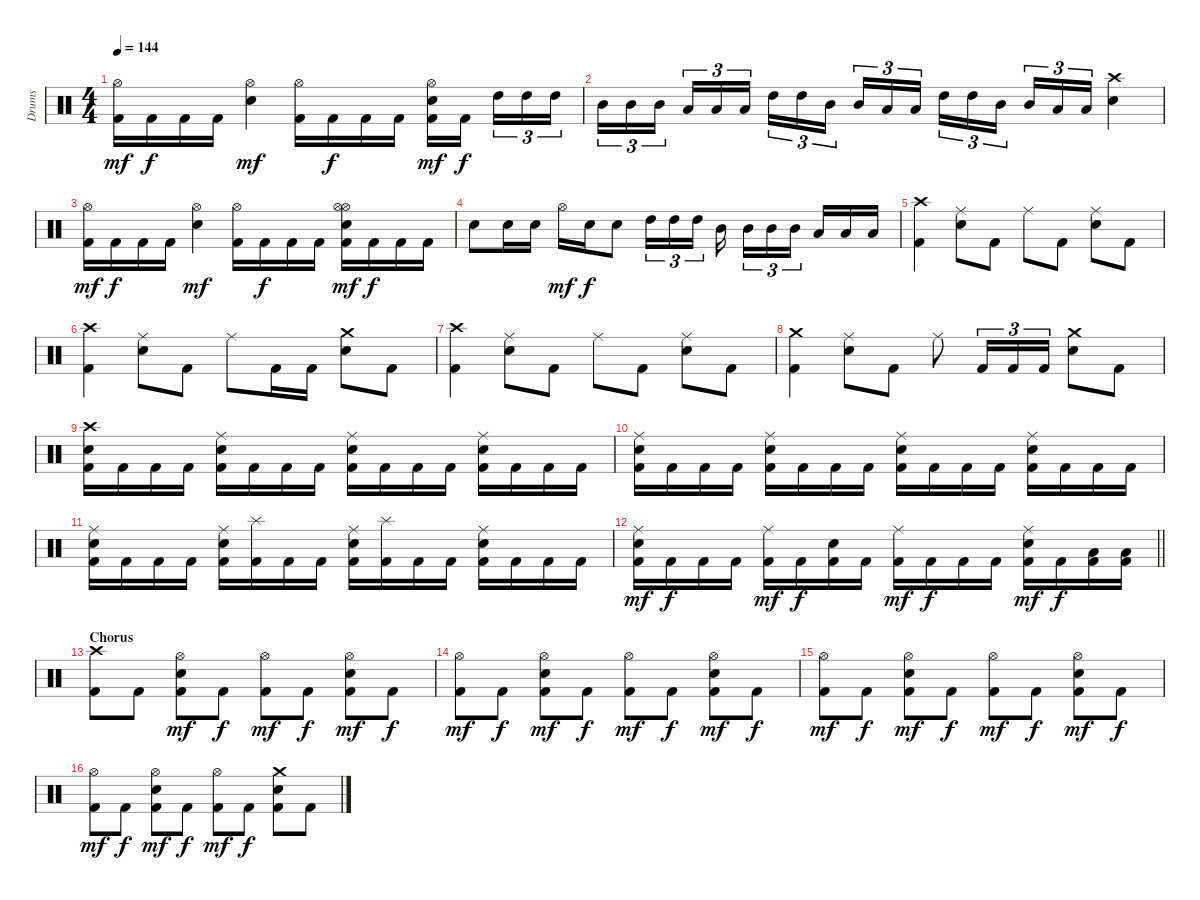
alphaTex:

\track ("Drums" "Drums") {instrument percussion}
\staff {score}
\articulation defaults
\ts (4 4)
\tempo 144
\clef neutral
\ks c
("Hi-Hat (open)" "Kick (hit) 2").16{dy mf} "Kick (hit) 2".16{dy f} "Kick (hit) 2".16 "Kick (hit) 2".16 ("Hi-Hat (open)" "Electric Snare (hit)").4{dy mf} ("Hi-Hat (open)" "Kick (hit) 2").16 "Kick (hit) 2".16{dy f} "Kick (hit) 2".16 "Kick (hit) 2".16 ("Hi-Hat (open)" "Electric Snare (hit)" "Kick (hit) 2").16{dy mf} "Kick (hit) 2".16{dy f} "High Tom (hit)".16{tu (3 2)} "High Tom (hit)".16{tu (3 2)} "High Tom (hit)".16{tu (3 2)} |
"Mid Tom (hit)".16{tu (3 2)} "Mid Tom (hit)".16{tu (3 2)} "Mid Tom (hit)".16{tu (3 2)} "Low Tom (hit)".16{tu (3 2)} "Low Tom (hit)".16{tu (3 2)} "Low Tom (hit)".16{tu (3 2)} "High Tom (hit)".16{tu (3 2)} "High Tom (hit)".16{tu (3 2)} "Mid Tom (hit)".16{tu (3 2)} "Mid Tom (hit)".16{tu (3 2)} "Low Tom (hit)".16{tu (3 2)} "Low Tom (hit)".16{tu (3 2)} "High Tom (hit)".16{tu (3 2)} "High Tom (hit)".16{tu (3 2)} "Mid Tom (hit)".16{tu (3 2)} "Mid Tom (hit)".16{tu (3 2)} "Low Tom (hit)".16{tu (3 2)} "Low Tom (hit)".16{tu (3 2)} ("Crash high (hit)" "Electric Snare (hit)").4 |
("Hi-Hat (open)" "Kick (hit) 2").16{dy mf} "Kick (hit) 2".16{dy f} "Kick (hit) 2".16 "Kick (hit) 2".16 ("Hi-Hat (open)" "Electric Snare (hit)").4{dy mf} ("Hi-Hat (open)" "Kick (hit) 2").16 "Kick (hit) 2".16{dy f} "Kick (hit) 2".16 "Kick (hit) 2".16 ("Hi-Hat (open)" "Hi-Hat (open)" "Electric Snare (hit)" "Kick (hit) 2").16{dy mf} "Kick (hit) 2".16{dy f} "Kick (hit) 2".16 "Kick (hit) 2".16 |
"Electric Snare (hit)".8 "Electric Snare (hit)".16 "Electric Snare (hit)".16 "Hi-Hat (open)".16{dy mf} "Electric Snare (hit)".16{dy f} "Electric Snare (hit)".8 "High Tom (hit)".16{tu (3 2)} "High Tom (hit)".16{tu (3 2)} "High Tom (hit)".16{tu (3 2)} "Mid Tom (hit)".16 "Mid Tom (hit)".16{tu (3 2)} "Mid Tom (hit)".16{tu (3 2)} "Mid Tom (hit)".16{tu (3 2)} "Low Tom (hit)".16 "Low Tom (hit)".16 "Low Tom (hit)".16 |
("Crash high (hit)" "Kick (hit) 2").4 ("Ride (middle)" "Electric Snare (hit)").8 "Kick (hit) 2".8 "Ride (middle)".8 "Kick (hit) 2".8 ("Ride (middle)" "Electric Snare (hit)").8 "Kick (hit) 2".8 |
("Crash high (hit)" "Kick (hit) 2").4 ("Ride (middle)" "Electric Snare (hit)").8 "Kick (hit) 2".8 "Ride (middle)".8 "Kick (hit) 2".16 "Kick (hit) 2".16 ("Crash medium (hit)" "Electric Snare (hit)").8 "Kick (hit) 2".8 |
("Crash high (hit)" "Kick (hit) 2").4 ("Ride (middle)" "Electric Snare (hit)").8 "Kick (hit) 2".8 "Ride (middle)".8 "Kick (hit) 2".8 ("Ride (middle)" "Electric Snare (hit)").8 "Kick (hit) 2".8 |
("Crash medium (hit)" "Kick (hit) 2").4 ("Ride (middle)" "Electric Snare (hit)").8 "Kick (hit) 2".8 "Ride (middle)".8 "Kick (hit) 2".16{tu (3 2)} "Kick (hit) 2".16{tu (3 2)} "Kick (hit) 2".16{tu (3 2)} ("Crash medium (hit)" "Electric Snare (hit)").8 "Kick (hit) 2".8 |
("Crash high (hit)" "Electric Snare (hit)" "Kick (hit) 2").16 "Kick (hit) 2".16 "Kick (hit) 2".16 "Kick (hit) 2".16 ("Ride (middle)" "Electric Snare (hit)" "Kick (hit) 2").16 "Kick (hit) 2".16 "Kick (hit) 2".16 "Kick (hit) 2".16 ("Ride (middle)" "Electric Snare (hit)" "Kick (hit) 2").16 "Kick (hit) 2".16 "Kick (hit) 2".16 "Kick (hit) 2".16 ("Ride (middle)" "Electric Snare (hit)" "Kick (hit) 2").16 "Kick (hit) 2".16 "Kick (hit) 2".16 "Kick (hit) 2".16 |
("Ride (middle)" "Electric Snare (hit)" "Kick (hit) 2").16 "Kick (hit) 2".16 "Kick (hit) 2".16 "Kick (hit) 2".16 ("Ride (middle)" "Electric Snare (hit)" "Kick (hit) 2").16 "Kick (hit) 2".16 "Kick (hit) 2".16 "Kick (hit) 2".16 ("Ride (middle)" "Electric Snare (hit)" "Kick (hit) 2").16 "Kick (hit) 2".16 "Kick (hit) 2".16 "Kick (hit) 2".16 ("Ride (middle)" "Electric Snare (hit)" "Kick (hit) 2").16 "Kick (hit) 2".16 "Kick (hit) 2".16 "Kick (hit) 2".16 |
("Ride (middle)" "Electric Snare (hit)" "Kick (hit) 2").16 "Kick (hit) 2".16 "Kick (hit) 2".16 "Kick (hit) 2".16 ("Ride (middle)" "Electric Snare (hit)" "Kick (hit) 2").16 ("Splash (hit)" "Kick (hit) 2").16 "Kick (hit) 2".16 "Kick (hit) 2".16 ("Ride (middle)" "Electric Snare (hit)" "Kick (hit) 2").16 ("Splash (hit)" "Kick (hit) 2").16 "Kick (hit) 2".16 "Kick (hit) 2".16 ("Ride (middle)" "Electric Snare (hit)" "Kick (hit) 2").16 "Kick (hit) 2".16 "Kick (hit) 2".16 "Kick (hit) 2".16 |
\barLineRight lightlight
("Ride (middle)" "Electric Snare (hit)" "Kick (hit) 2").16{dy mf} "Kick (hit) 2".16{dy f} "Kick (hit) 2".16 "Kick (hit) 2".16 ("Ride (middle)" "Kick (hit) 2").16{dy mf} "Kick (hit) 2".16{dy f} ("Electric Snare (hit)" "Kick (hit) 2").16 "Kick (hit) 2".16 ("Ride (middle)" "Kick (hit) 2").16{dy mf} "Kick (hit) 2".16{dy f} "Kick (hit) 2".16 "Kick (hit) 2".16 ("Ride (middle)" "Electric Snare (hit)" "Kick (hit) 2").16{dy mf} "Kick (hit) 2".16{dy f} ("Low Tom (hit)" "Kick (hit) 2").16 ("Low Tom (hit)" "Kick (hit) 2").16 |
\section ("" "Chorus")
("Crash high (hit)" "Kick (hit) 2").8 "Kick (hit) 2".8 ("Hi-Hat (open)" "Electric Snare (hit)" "Kick (hit) 2").8{dy mf} "Kick (hit) 2".8{dy f} ("Hi-Hat (open)" "Kick (hit) 2").8{dy mf} "Kick (hit) 2".8{dy f} ("Hi-Hat (open)" "Electric Snare (hit)" "Kick (hit) 2").8{dy mf} "Kick (hit) 2".8{dy f} |
("Hi-Hat (open)" "Kick (hit) 2").8{dy mf} "Kick (hit) 2".8{dy f} ("Hi-Hat (open)" "Electric Snare (hit)" "Kick (hit) 2").8{dy mf} "Kick (hit) 2".8{dy f} ("Hi-Hat (open)" "Kick (hit) 2").8{dy mf} "Kick (hit) 2".8{dy f} ("Hi-Hat (open)" "Electric Snare (hit)" "Kick (hit) 2").8{dy mf} "Kick (hit) 2".8{dy f} |
("Hi-Hat (open)" "Kick (hit) 2").8{dy mf} "Kick (hit) 2".8{dy f} ("Hi-Hat (open)" "Electric Snare (hit)" "Kick (hit) 2").8{dy mf} "Kick (hit) 2".8{dy f} ("Hi-Hat (open)" "Kick (hit) 2").8{dy mf} "Kick (hit) 2".8{dy f} ("Hi-Hat (open)" "Electric Snare (hit)" "Kick (hit) 2").8{dy mf} "Kick (hit) 2".8{dy f} |
("Hi-Hat (open)" "Kick (hit) 2").8{dy mf} "Kick (hit) 2".8{dy f} ("Hi-Hat (open)" "Electric Snare (hit)" "Kick (hit) 2").8{dy mf} "Kick (hit) 2".8{dy f} ("Hi-Hat (open)" "Kick (hit) 2").8{dy mf} "Kick (hit) 2".8{dy f} ("Crash medium (hit)" "Electric Snare (hit)" "Kick (hit) 2").8 "Kick (hit) 2".8
